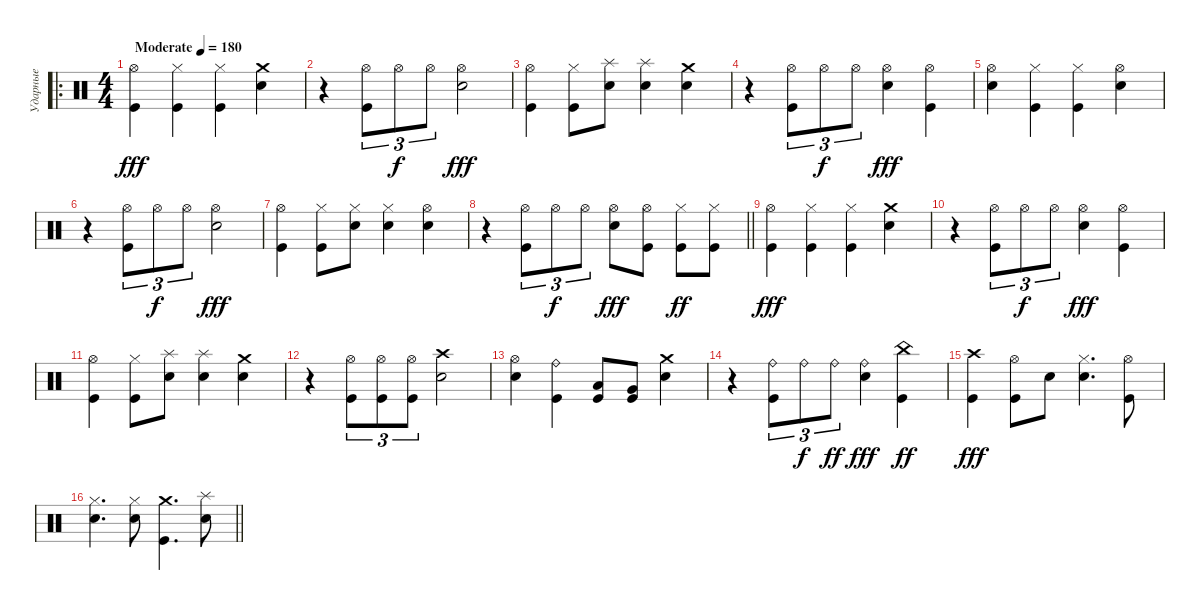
\track ("Ударные" "Ударные") {instrument percussion}
\staff {score}
\articulation defaults
\ro
\ts (4 4)
\tempo (180 "Moderate")
\clef neutral
\ks c
("Hi-Hat (open)" "Kick (hit)").4{dy fff} ("Hi-Hat (closed)" "Kick (hit)").4 ("Hi-Hat (closed)" "Kick (hit)").4 ("Crash medium (hit)" "Electric Snare (hit)").4 |
r.4 ("Hi-Hat (open)" "Kick (hit)").8{tu (3 2)} "Hi-Hat (open)".8{tu (3 2) dy f} "Hi-Hat (open)".8{tu (3 2)} ("Hi-Hat (open)" "Electric Snare (hit)").2{dy fff} |
("Hi-Hat (open)" "Kick (hit)").4 ("Hi-Hat (closed)" "Kick (hit)").8 ("Splash (hit)" "Electric Snare (hit)").8 ("Splash (hit)" "Electric Snare (hit)").4 ("Crash medium (hit)" "Electric Snare (hit)").4 |
r.4 ("Hi-Hat (open)" "Kick (hit)").8{tu (3 2)} "Hi-Hat (open)".8{tu (3 2) dy f} "Hi-Hat (open)".8{tu (3 2)} ("Hi-Hat (open)" "Electric Snare (hit)").4{dy fff} ("Hi-Hat (open)" "Kick (hit)").4 |
("Hi-Hat (open)" "Electric Snare (hit)").4 ("Hi-Hat (closed)" "Kick (hit)").4 ("Hi-Hat (closed)" "Kick (hit)").4 ("Hi-Hat (open)" "Electric Snare (hit)").4 |
r.4 ("Hi-Hat (open)" "Kick (hit)").8{tu (3 2)} "Hi-Hat (open)".8{tu (3 2) dy f} "Hi-Hat (open)".8{tu (3 2)} ("Hi-Hat (open)" "Electric Snare (hit)").2{dy fff} |
("Hi-Hat (open)" "Kick (hit)").4 ("Hi-Hat (closed)" "Kick (hit)").8 ("Hi-Hat (closed)" "Electric Snare (hit)").8 ("Hi-Hat (closed)" "Electric Snare (hit)").4 ("Hi-Hat (open)" "Electric Snare (hit)").4 |
\barLineRight lightlight
r.4 ("Hi-Hat (open)" "Kick (hit)").8{tu (3 2)} "Hi-Hat (open)".8{tu (3 2) dy f} "Hi-Hat (open)".8{tu (3 2)} ("Hi-Hat (open)" "Electric Snare (hit)").8{dy fff} ("Hi-Hat (open)" "Kick (hit)").8 ("Hi-Hat (closed)" "Kick (hit)").8{dy ff} ("Hi-Hat (closed)" "Kick (hit)").8 |
("Hi-Hat (open)" "Kick (hit)").4{dy fff} ("Hi-Hat (closed)" "Kick (hit)").4 ("Hi-Hat (closed)" "Kick (hit)").4 ("Crash medium (hit)" "Electric Snare (hit)").4 |
r.4 ("Hi-Hat (open)" "Kick (hit)").8{tu (3 2)} "Hi-Hat (open)".8{tu (3 2) dy f} "Hi-Hat (open)".8{tu (3 2)} ("Hi-Hat (open)" "Electric Snare (hit)").4{dy fff} ("Hi-Hat (open)" "Kick (hit)").4 |
("Hi-Hat (open)" "Kick (hit)").4 ("Hi-Hat (closed)" "Kick (hit)").8 ("Splash (hit)" "Electric Snare (hit)").8 ("Splash (hit)" "Electric Snare (hit)").4 ("Crash medium (hit)" "Electric Snare (hit)").4 |
r.4 ("Hi-Hat (open)" "Kick (hit)").8{tu (3 2)} ("Hi-Hat (open)" "Kick (hit)").8{tu (3 2)} ("Hi-Hat (open)" "Kick (hit)").8{tu (3 2)} ("Crash high (hit)" "Electric Snare (hit)").2 |
("Hi-Hat (open)" "Electric Snare (hit)").4 ("Ride (bell)" "Kick (hit)").4 ("Low Tom (hit)" "Kick (hit)").8 ("Very Low Tom (hit)" "Kick (hit)").8 ("Crash medium (hit)" "Electric Snare (hit)").4 |
r.4 ("Ride (bell)" "Kick (hit)").8{tu (3 2)} "Ride (bell)".8{tu (3 2) dy f} "Ride (bell)".8{tu (3 2) dy ff} ("Ride (bell)" "Electric Snare (hit)").4{dy fff} ("China (hit)" "Kick (hit)").4{dy ff} |
("Crash high (hit)" "Kick (hit)").4{dy fff} ("Hi-Hat (open)" "Kick (hit)").8 "Electric Snare (hit)".8 ("Hi-Hat (closed)" "Electric Snare (hit)").4{d} ("Hi-Hat (open)" "Kick (hit)").8 |
\barLineRight lightlight
("Hi-Hat (closed)" "Electric Snare (hit)").4{d} ("Hi-Hat (closed)" "Electric Snare (hit)").8 ("Crash medium (hit)" "Kick (hit)").4{d} ("Splash (hit)" "Electric Snare (hit)").8
